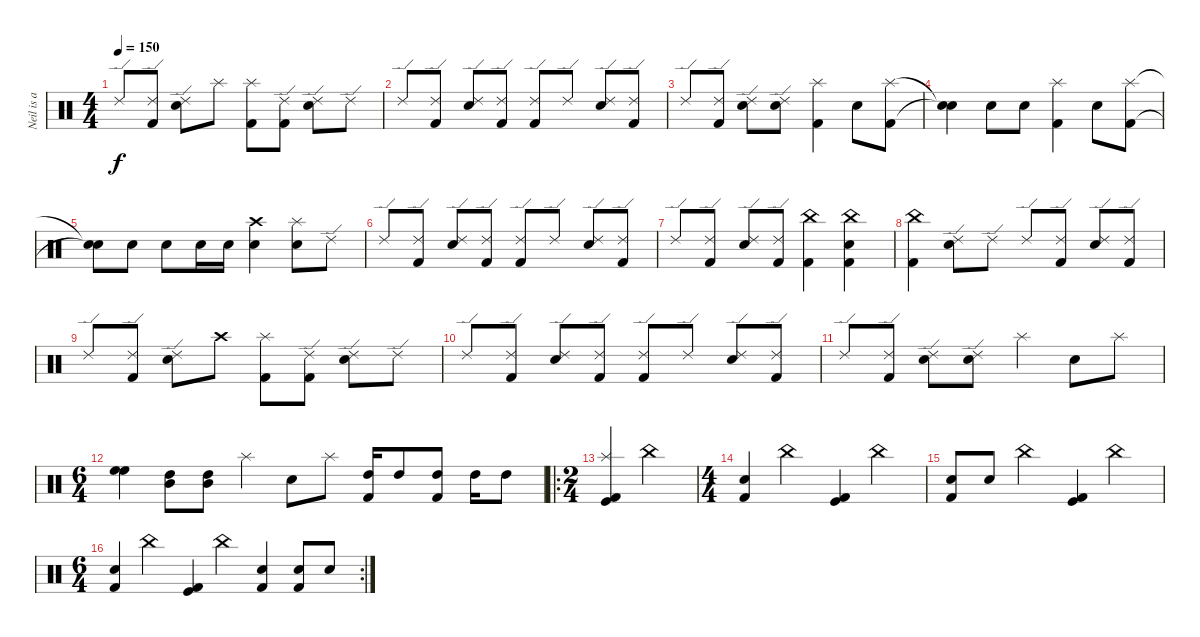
\track ("Neil is a Drum God!!!" "Neil is a ") {instrument percussion}
\staff {score}
\articulation defaults
\ts (4 4)
\tempo 150
\clef neutral
\ks c "Ride (edge) 2".8{dy f}
("Ride (edge) 2" "Kick (hit) 2").8 ("Ride (edge) 2" "Snare (hit) 2").8 "Splash (hit)".8 ("Splash (hit)" "Kick (hit) 2").8 ("Ride (edge) 2" "Kick (hit) 2").8 ("Ride (edge) 2" "Snare (hit) 2").8 "Ride (edge) 2".8 |
"Ride (edge) 2".8 ("Ride (edge) 2" "Kick (hit) 2").8 ("Ride (edge) 2" "Snare (hit) 2").8 ("Ride (edge) 2" "Kick (hit) 2").8 ("Ride (edge) 2" "Kick (hit) 2").8 "Ride (edge) 2".8 ("Ride (edge) 2" "Snare (hit) 2").8 ("Ride (edge) 2" "Kick (hit) 2").8 |
"Ride (edge) 2".8 ("Ride (edge) 2" "Kick (hit) 2").8 ("Ride (edge) 2" "Snare (hit) 2").8 ("Ride (edge) 2" "Snare (hit) 2").8 ("Splash (hit)" "Kick (hit) 2").4 "Snare (hit) 2".8 ("Splash (hit)" "Kick (hit) 2").8 |
("Snare (hit)"{t} "Snare (hit)"{t}).4 "Snare (hit) 2".8 "Snare (hit) 2".8 ("Splash (hit)" "Kick (hit) 2").4 "Snare (hit) 2".8 ("Splash (hit)" "Kick (hit) 2").8 |
("Snare (hit)"{t} "Snare (hit)"{t}).8 "Snare (hit) 2".8 "Snare (hit) 2".8 "Snare (hit) 2".16 "Snare (hit) 2".16 ("Crash high (hit)" "Snare (hit) 2").4 ("Splash (hit)" "Snare (hit) 2").8 "Ride (edge) 2".8 |
"Ride (edge) 2".8 ("Ride (edge) 2" "Kick (hit) 2").8 ("Ride (edge) 2" "Snare (hit) 2").8 ("Ride (edge) 2" "Kick (hit) 2").8 ("Ride (edge) 2" "Kick (hit) 2").8 "Ride (edge) 2".8 ("Ride (edge) 2" "Snare (hit) 2").8 ("Ride (edge) 2" "Kick (hit) 2").8 |
"Ride (edge) 2".8 ("Ride (edge) 2" "Kick (hit) 2").8 ("Ride (edge) 2" "Snare (hit) 2").8 ("Ride (edge) 2" "Kick (hit) 2").8 ("China (hit)" "Kick (hit) 2").4 ("China (hit)" "Snare (hit) 2" "Kick (hit) 2").4 |
("China (hit)" "Kick (hit) 2").4 ("Ride (edge) 2" "Snare (hit) 2").8 "Ride (edge) 2".8 "Ride (edge) 2".8 ("Ride (edge) 2" "Kick (hit) 2").8 ("Ride (edge) 2" "Snare (hit) 2").8 ("Ride (edge) 2" "Kick (hit) 2").8 |
"Ride (edge) 2".8 ("Ride (edge) 2" "Kick (hit) 2").8 ("Ride (edge) 2" "Snare (hit) 2").8 "Crash high (hit)".8 ("Splash (hit)" "Kick (hit) 2").8 ("Ride (edge) 2" "Kick (hit) 2").8 ("Ride (edge) 2" "Snare (hit) 2").8 "Ride (edge) 2".8 |
"Ride (edge) 2".8 ("Ride (edge) 2" "Kick (hit) 2").8 ("Ride (edge) 2" "Snare (hit) 2").8 ("Ride (edge) 2" "Kick (hit) 2").8 ("Ride (edge) 2" "Kick (hit) 2").8 "Ride (edge) 2".8 ("Ride (edge) 2" "Snare (hit) 2").8 ("Ride (edge) 2" "Kick (hit) 2").8 |
"Ride (edge) 2".8 ("Ride (edge) 2" "Kick (hit) 2").8 ("Ride (edge) 2" "Snare (hit) 2").8 ("Ride (edge) 2" "Snare (hit) 2").8 "Splash (hit)".4 "Snare (hit) 2".8 "Splash (hit)".8 |
\ts (6 4)
("High Floor Tom (hit)" "High Floor Tom (hit)").4 ("High Tom (hit)" "Mid Tom (hit)").8 ("Mid Tom (hit)" "High Tom (hit)").8 "Splash (hit)".4 "Snare (hit) 2".8 "Splash (hit)".8 ("High Tom (hit)" "Kick (hit) 2").16 "High Tom (hit)".8 ("High Tom (hit)" "Kick (hit) 2").8 "High Tom (hit)".16 "High Tom (hit)".8 |
\ro
\ts (2 4)
("Splash (hit)" "Kick (hit)" "Kick (hit) 2").4 "China (hit)".4 |
\ts (4 4)
("Snare (hit) 2" "Kick (hit) 2").4 "China (hit)".4 ("Kick (hit)" "Kick (hit) 2").4 "China (hit)".4 |
("Snare (hit) 2" "Kick (hit) 2").8 "Snare (hit) 2".8 "China (hit)".4 ("Kick (hit)" "Kick (hit) 2").4 "China (hit)".4 |
\rc 2
\ts (6 4)
("Snare (hit) 2" "Kick (hit) 2").4 "China (hit)".4 ("Kick (hit)" "Kick (hit) 2").4 "China (hit)".4 ("Snare (hit) 2" "Kick (hit) 2").4 ("Snare (hit) 2" "Kick (hit) 2").8 "Snare (hit) 2".8
